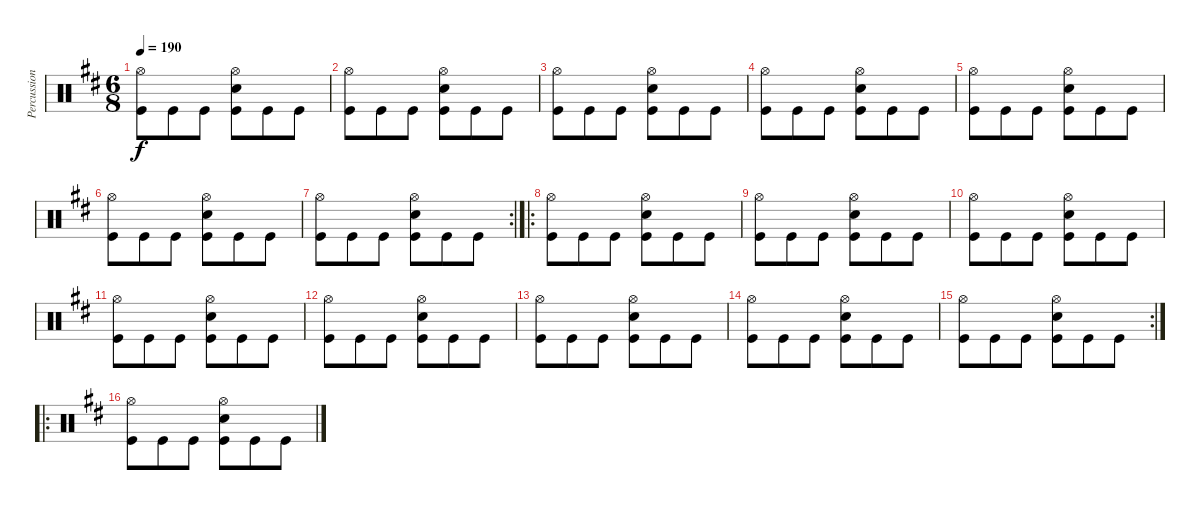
\track ("Percussion" "Percussion") {instrument percussion}
\staff {score}
\articulation defaults
\ts (6 8)
\tempo 190
\clef neutral
\ks d
("Hi-Hat (open)" "Kick (hit)").8{dy f} "Kick (hit)".8 "Kick (hit)".8 ("Hi-Hat (open)" "Snare (hit) 2" "Kick (hit)").8 "Kick (hit)".8 "Kick (hit)".8 |
("Hi-Hat (open)" "Kick (hit)").8 "Kick (hit)".8 "Kick (hit)".8 ("Hi-Hat (open)" "Snare (hit) 2" "Kick (hit)").8 "Kick (hit)".8 "Kick (hit)".8 |
("Hi-Hat (open)" "Kick (hit)").8 "Kick (hit)".8 "Kick (hit)".8 ("Hi-Hat (open)" "Snare (hit) 2" "Kick (hit)").8 "Kick (hit)".8 "Kick (hit)".8 |
("Hi-Hat (open)" "Kick (hit)").8 "Kick (hit)".8 "Kick (hit)".8 ("Hi-Hat (open)" "Snare (hit) 2" "Kick (hit)").8 "Kick (hit)".8 "Kick (hit)".8 |
("Hi-Hat (open)" "Kick (hit)").8 "Kick (hit)".8 "Kick (hit)".8 ("Hi-Hat (open)" "Snare (hit) 2" "Kick (hit)").8 "Kick (hit)".8 "Kick (hit)".8 |
("Hi-Hat (open)" "Kick (hit)").8 "Kick (hit)".8 "Kick (hit)".8 ("Hi-Hat (open)" "Snare (hit) 2" "Kick (hit)").8 "Kick (hit)".8 "Kick (hit)".8 |
\rc 2
("Hi-Hat (open)" "Kick (hit)").8 "Kick (hit)".8 "Kick (hit)".8 ("Hi-Hat (open)" "Snare (hit) 2" "Kick (hit)").8 "Kick (hit)".8 "Kick (hit)".8 |
\ro
("Hi-Hat (open)" "Kick (hit)").8 "Kick (hit)".8 "Kick (hit)".8 ("Hi-Hat (open)" "Snare (hit) 2" "Kick (hit)").8 "Kick (hit)".8 "Kick (hit)".8 |
("Hi-Hat (open)" "Kick (hit)").8 "Kick (hit)".8 "Kick (hit)".8 ("Hi-Hat (open)" "Snare (hit) 2" "Kick (hit)").8 "Kick (hit)".8 "Kick (hit)".8 |
("Hi-Hat (open)" "Kick (hit)").8 "Kick (hit)".8 "Kick (hit)".8 ("Hi-Hat (open)" "Snare (hit) 2" "Kick (hit)").8 "Kick (hit)".8 "Kick (hit)".8 |
("Hi-Hat (open)" "Kick (hit)").8 "Kick (hit)".8 "Kick (hit)".8 ("Hi-Hat (open)" "Snare (hit) 2" "Kick (hit)").8 "Kick (hit)".8 "Kick (hit)".8 |
("Hi-Hat (open)" "Kick (hit)").8 "Kick (hit)".8 "Kick (hit)".8 ("Hi-Hat (open)" "Snare (hit) 2" "Kick (hit)").8 "Kick (hit)".8 "Kick (hit)".8 |
("Hi-Hat (open)" "Kick (hit)").8 "Kick (hit)".8 "Kick (hit)".8 ("Hi-Hat (open)" "Snare (hit) 2" "Kick (hit)").8 "Kick (hit)".8 "Kick (hit)".8 |
("Hi-Hat (open)" "Kick (hit)").8 "Kick (hit)".8 "Kick (hit)".8 ("Hi-Hat (open)" "Snare (hit) 2" "Kick (hit)").8 "Kick (hit)".8 "Kick (hit)".8 |
\rc 2
("Hi-Hat (open)" "Kick (hit)").8 "Kick (hit)".8 "Kick (hit)".8 ("Hi-Hat (open)" "Snare (hit) 2" "Kick (hit)").8 "Kick (hit)".8 "Kick (hit)".8 |
\ro
("Hi-Hat (open)" "Kick (hit)").8 "Kick (hit)".8 "Kick (hit)".8 ("Hi-Hat (open)" "Snare (hit) 2" "Kick (hit)").8 "Kick (hit)".8 "Kick (hit)".8
